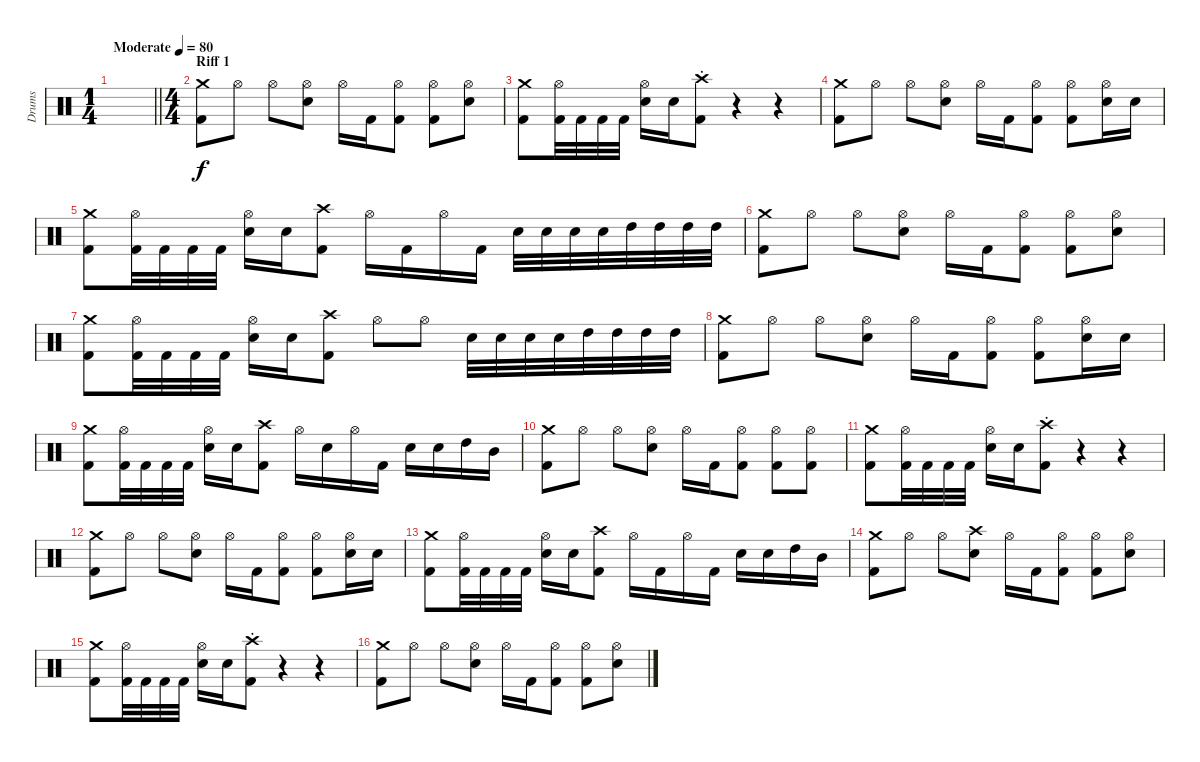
\track ("Drums" "Drums") {instrument percussion}
\staff {score}
\articulation defaults
\ts (1 4)
\tempo (80 "Moderate")
\clef neutral
\barLineRight lightlight
\ks c
|
\ts (4 4)
\section ("" "Riff 1")
("Crash medium (hit)" "Kick (hit) 2").8 "Hi-Hat (open)".8 "Hi-Hat (open)".8 ("Hi-Hat (open)" "Electric Snare (hit)").8 "Hi-Hat (open)".16 "Kick (hit) 2".16 ("Hi-Hat (open)" "Kick (hit) 2").8 ("Hi-Hat (open)" "Kick (hit) 2").8 ("Hi-Hat (open)" "Electric Snare (hit)").8 |
("Crash medium (hit)" "Kick (hit) 2").8 ("Hi-Hat (open)" "Kick (hit) 2").32 "Kick (hit) 2".32 "Kick (hit) 2".32 "Kick (hit) 2".32 ("Hi-Hat (open)" "Electric Snare (hit)").16 "Electric Snare (hit)".16 ("Crash high (hit)"{st} "Kick (hit) 2").8 r.4 r.4 |
("Crash medium (hit)" "Kick (hit) 2").8 "Hi-Hat (open)".8 "Hi-Hat (open)".8 ("Hi-Hat (open)" "Electric Snare (hit)").8 "Hi-Hat (open)".16 "Kick (hit) 2".16 ("Hi-Hat (open)" "Kick (hit) 2").8 ("Hi-Hat (open)" "Kick (hit) 2").8 ("Hi-Hat (open)" "Electric Snare (hit)").16 "Electric Snare (hit)".16 |
("Crash medium (hit)" "Kick (hit) 2").8 ("Hi-Hat (open)" "Kick (hit) 2").32 "Kick (hit) 2".32 "Kick (hit) 2".32 "Kick (hit) 2".32 ("Hi-Hat (open)" "Electric Snare (hit)").16 "Electric Snare (hit)".16 ("Crash high (hit)" "Kick (hit) 2").8 "Hi-Hat (open)".16 "Kick (hit) 2".16 "Hi-Hat (open)".16 "Kick (hit) 2".16 "Electric Snare (hit)".32 "Electric Snare (hit)".32 "Electric Snare (hit)".32 "Electric Snare (hit)".32 "High Tom (hit)".32 "High Tom (hit)".32 "High Tom (hit)".32 "High Tom (hit)".32 |
("Crash medium (hit)" "Kick (hit) 2").8 "Hi-Hat (open)".8 "Hi-Hat (open)".8 ("Hi-Hat (open)" "Electric Snare (hit)").8 "Hi-Hat (open)".16 "Kick (hit) 2".16 ("Hi-Hat (open)" "Kick (hit) 2").8 ("Hi-Hat (open)" "Kick (hit) 2").8 ("Hi-Hat (open)" "Electric Snare (hit)").8 |
("Crash medium (hit)" "Kick (hit) 2").8 ("Hi-Hat (open)" "Kick (hit) 2").32 "Kick (hit) 2".32 "Kick (hit) 2".32 "Kick (hit) 2".32 ("Hi-Hat (open)" "Electric Snare (hit)").16 "Electric Snare (hit)".16 ("Crash high (hit)" "Kick (hit) 2").8 "Hi-Hat (open)".8 "Hi-Hat (open)".8 "Electric Snare (hit)".32 "Electric Snare (hit)".32 "Electric Snare (hit)".32 "Electric Snare (hit)".32 "High Tom (hit)".32 "High Tom (hit)".32 "High Tom (hit)".32 "High Tom (hit)".32 |
("Crash medium (hit)" "Kick (hit) 2").8 "Hi-Hat (open)".8 "Hi-Hat (open)".8 ("Hi-Hat (open)" "Electric Snare (hit)").8 "Hi-Hat (open)".16 "Kick (hit) 2".16 ("Hi-Hat (open)" "Kick (hit) 2").8 ("Hi-Hat (open)" "Kick (hit) 2").8 ("Hi-Hat (open)" "Electric Snare (hit)").16 "Electric Snare (hit)".16 |
("Crash medium (hit)" "Kick (hit) 2").8 ("Hi-Hat (open)" "Kick (hit) 2").32 "Kick (hit) 2".32 "Kick (hit) 2".32 "Kick (hit) 2".32 ("Hi-Hat (open)" "Electric Snare (hit)").16 "Electric Snare (hit)".16 ("Crash high (hit)" "Kick (hit) 2").8 "Hi-Hat (open)".16 "Electric Snare (hit)".16 "Hi-Hat (open)".16 "Kick (hit) 2".16 "Electric Snare (hit)".16 "Electric Snare (hit)".16 "High Tom (hit)".16 "Mid Tom (hit)".16 |
("Crash medium (hit)" "Kick (hit) 2").8 "Hi-Hat (open)".8 "Hi-Hat (open)".8 ("Hi-Hat (open)" "Electric Snare (hit)").8 "Hi-Hat (open)".16 "Kick (hit) 2".16 ("Hi-Hat (open)" "Kick (hit) 2").8 ("Hi-Hat (open)" "Kick (hit) 2").8 ("Hi-Hat (open)" "Kick (hit) 2").8 |
("Crash medium (hit)" "Kick (hit) 2").8 ("Hi-Hat (open)" "Kick (hit) 2").32 "Kick (hit) 2".32 "Kick (hit) 2".32 "Kick (hit) 2".32 ("Hi-Hat (open)" "Electric Snare (hit)").16 "Electric Snare (hit)".16 ("Crash high (hit)"{st} "Kick (hit) 2").8 r.4 r.4 |
("Crash medium (hit)" "Kick (hit) 2").8 "Hi-Hat (open)".8 "Hi-Hat (open)".8 ("Hi-Hat (open)" "Electric Snare (hit)").8 "Hi-Hat (open)".16 "Kick (hit) 2".16 ("Hi-Hat (open)" "Kick (hit) 2").8 ("Hi-Hat (open)" "Kick (hit) 2").8 ("Hi-Hat (open)" "Electric Snare (hit)").16 "Electric Snare (hit)".16 |
("Crash medium (hit)" "Kick (hit) 2").8 ("Hi-Hat (open)" "Kick (hit) 2").32 "Kick (hit) 2".32 "Kick (hit) 2".32 "Kick (hit) 2".32 ("Hi-Hat (open)" "Electric Snare (hit)").16 "Electric Snare (hit)".16 ("Crash high (hit)" "Kick (hit) 2").8 "Hi-Hat (open)".16 "Kick (hit) 2".16 "Hi-Hat (open)".16 "Kick (hit) 2".16 "Electric Snare (hit)".16 "Electric Snare (hit)".16 "High Tom (hit)".16 "Mid Tom (hit)".16 |
("Crash medium (hit)" "Kick (hit) 2").8 "Hi-Hat (open)".8 "Hi-Hat (open)".8 ("Crash high (hit)" "Electric Snare (hit)").8 "Hi-Hat (open)".16 "Kick (hit) 2".16 ("Hi-Hat (open)" "Kick (hit) 2").8 ("Hi-Hat (open)" "Kick (hit) 2").8 ("Hi-Hat (open)" "Electric Snare (hit)").8 |
("Crash medium (hit)" "Kick (hit) 2").8 ("Hi-Hat (open)" "Kick (hit) 2").32 "Kick (hit) 2".32 "Kick (hit) 2".32 "Kick (hit) 2".32 ("Hi-Hat (open)" "Electric Snare (hit)").16 "Electric Snare (hit)".16 ("Crash high (hit)"{st} "Kick (hit) 2").8 r.4 r.4 |
("Crash medium (hit)" "Kick (hit) 2").8 "Hi-Hat (open)".8 "Hi-Hat (open)".8 ("Hi-Hat (open)" "Electric Snare (hit)").8 "Hi-Hat (open)".16 "Kick (hit) 2".16 ("Hi-Hat (open)" "Kick (hit) 2").8 ("Hi-Hat (open)" "Kick (hit) 2").8 ("Hi-Hat (open)" "Electric Snare (hit)").8
